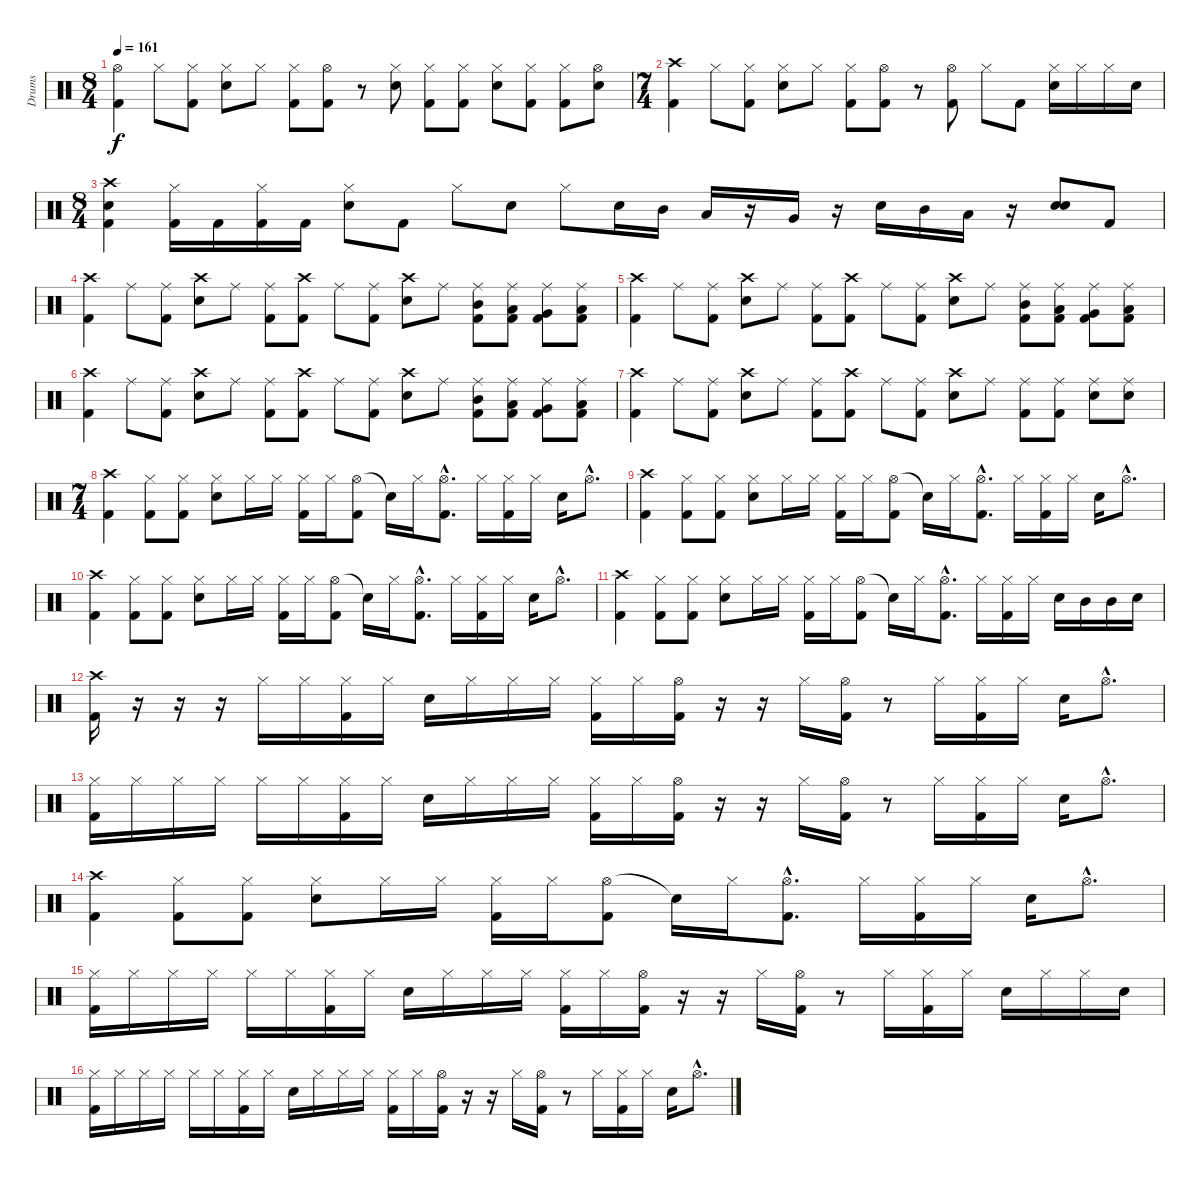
\track ("Drums" "Drums") {instrument percussion}
\staff {score}
\articulation defaults
\ts (8 4)
\tempo 161
\clef neutral
\ks c
("Hi-Hat (open)" "Kick (hit) 2").4{dy f} "Hi-Hat (closed)".8 ("Hi-Hat (closed)" "Kick (hit) 2").8 ("Hi-Hat (closed)" "Snare (hit) 2").8 "Hi-Hat (closed)".8 ("Hi-Hat (closed)" "Kick (hit) 2").8 ("Hi-Hat (open)" "Kick (hit) 2").8 r.8 ("Hi-Hat (closed)" "Snare (hit) 2").8 ("Hi-Hat (closed)" "Kick (hit) 2").8 ("Hi-Hat (closed)" "Kick (hit) 2").8 ("Hi-Hat (closed)" "Snare (hit) 2").8 ("Hi-Hat (closed)" "Kick (hit) 2").8 ("Hi-Hat (closed)" "Kick (hit) 2").8 ("Hi-Hat (open)" "Snare (hit) 2").8 |
\ts (7 4)
("Crash high (hit)" "Kick (hit) 2").4 "Hi-Hat (closed)".8 ("Hi-Hat (closed)" "Kick (hit) 2").8 ("Hi-Hat (closed)" "Snare (hit) 2").8 "Hi-Hat (closed)".8 ("Hi-Hat (closed)" "Kick (hit) 2").8 ("Hi-Hat (open)" "Kick (hit) 2").8 r.8 ("Hi-Hat (open)" "Kick (hit) 2").8 "Hi-Hat (closed)".8 "Kick (hit) 2".8 ("Hi-Hat (closed)" "Snare (hit) 2").16 "Hi-Hat (closed)".16 "Hi-Hat (closed)".16 "Snare (hit) 2".16 |
\ts (8 4)
("Crash high (hit)" "Snare (hit) 2" "Kick (hit) 2").4 ("Hi-Hat (closed)" "Kick (hit) 2").16 "Kick (hit) 2".16 ("Hi-Hat (closed)" "Kick (hit) 2").16 "Kick (hit) 2".16 ("Hi-Hat (closed)" "Snare (hit) 2").8 "Kick (hit) 2".8 "Hi-Hat (closed)".8 "Snare (hit) 2".8 "Hi-Hat (closed)".8 "Snare (hit) 2".16 "Mid Tom (hit)".16 "Low Tom (hit)".16 r.16 "Very Low Tom (hit)".16 r.16 "Snare (hit) 2".16 "Mid Tom (hit)".16 "Low Tom (hit)".16 r.16 ("Snare (hit) 2" "Snare (hit) 2").8 "Kick (hit) 2".8 |
("Crash high (hit)" "Kick (hit) 2").4 "Ride (middle)".8 ("Ride (middle)" "Kick (hit) 2").8 ("Crash high (hit)" "Snare (hit) 2").8 "Ride (middle)".8 ("Ride (middle)" "Kick (hit) 2").8 ("Crash high (hit)" "Kick (hit) 2").8 "Ride (middle)".8 ("Ride (middle)" "Kick (hit) 2").8 ("Crash high (hit)" "Snare (hit) 2").8 "Ride (middle)".8 ("Ride (middle)" "Mid Tom (hit)" "Kick (hit) 2").8 ("Ride (middle)" "Low Tom (hit)" "Kick (hit) 2").8 ("Ride (middle)" "Very Low Tom (hit)" "Kick (hit) 2").8 ("Ride (middle)" "Low Floor Tom (hit)" "Kick (hit) 2").8 |
("Crash high (hit)" "Kick (hit) 2").4 "Ride (middle)".8 ("Ride (middle)" "Kick (hit) 2").8 ("Crash high (hit)" "Snare (hit) 2").8 "Ride (middle)".8 ("Ride (middle)" "Kick (hit) 2").8 ("Crash high (hit)" "Kick (hit) 2").8 "Ride (middle)".8 ("Ride (middle)" "Kick (hit) 2").8 ("Crash high (hit)" "Snare (hit) 2").8 "Ride (middle)".8 ("Ride (middle)" "Mid Tom (hit)" "Kick (hit) 2").8 ("Ride (middle)" "Low Tom (hit)" "Kick (hit) 2").8 ("Ride (middle)" "Very Low Tom (hit)" "Kick (hit) 2").8 ("Ride (middle)" "Low Floor Tom (hit)" "Kick (hit) 2").8 |
("Crash high (hit)" "Kick (hit) 2").4 "Ride (middle)".8 ("Ride (middle)" "Kick (hit) 2").8 ("Crash high (hit)" "Snare (hit) 2").8 "Ride (middle)".8 ("Ride (middle)" "Kick (hit) 2").8 ("Crash high (hit)" "Kick (hit) 2").8 "Ride (middle)".8 ("Ride (middle)" "Kick (hit) 2").8 ("Crash high (hit)" "Snare (hit) 2").8 "Ride (middle)".8 ("Ride (middle)" "Mid Tom (hit)" "Kick (hit) 2").8 ("Ride (middle)" "Low Tom (hit)" "Kick (hit) 2").8 ("Ride (middle)" "Very Low Tom (hit)" "Kick (hit) 2").8 ("Ride (middle)" "Low Floor Tom (hit)" "Kick (hit) 2").8 |
("Crash high (hit)" "Kick (hit) 2").4 "Ride (middle)".8 ("Ride (middle)" "Kick (hit) 2").8 ("Crash high (hit)" "Snare (hit) 2").8 "Ride (middle)".8 ("Ride (middle)" "Kick (hit) 2").8 ("Crash high (hit)" "Kick (hit) 2").8 "Ride (middle)".8 ("Ride (middle)" "Kick (hit) 2").8 ("Crash high (hit)" "Snare (hit) 2").8 "Ride (middle)".8 ("Ride (middle)" "Kick (hit) 2").8 ("Ride (middle)" "Kick (hit) 2").8 ("Ride (middle)" "Snare (hit) 2").8 ("Ride (middle)" "Snare (hit) 2").8 |
\ts (7 4)
("Crash high (hit)" "Kick (hit) 2").4 ("Hi-Hat (closed)" "Kick (hit) 2").8 ("Hi-Hat (closed)" "Kick (hit) 2").8 ("Hi-Hat (closed)" "Snare (hit) 2").8 "Hi-Hat (closed)".16 "Hi-Hat (closed)".16 ("Hi-Hat (closed)" "Kick (hit) 2").16 "Hi-Hat (closed)".16 ("Hi-Hat (open)" "Kick (hit) 2").8 "Snare (hit)"{t}.16 "Hi-Hat (closed)".16 ("Hi-Hat (open)"{hac} "Kick (hit) 2"{hac}).8{d} "Hi-Hat (closed)".16 ("Hi-Hat (closed)" "Kick (hit) 2").16 "Hi-Hat (closed)".16 "Snare (hit) 2".16 "Hi-Hat (open)"{hac}.8{d} |
("Crash high (hit)" "Kick (hit) 2").4 ("Hi-Hat (closed)" "Kick (hit) 2").8 ("Hi-Hat (closed)" "Kick (hit) 2").8 ("Hi-Hat (closed)" "Snare (hit) 2").8 "Hi-Hat (closed)".16 "Hi-Hat (closed)".16 ("Hi-Hat (closed)" "Kick (hit) 2").16 "Hi-Hat (closed)".16 ("Hi-Hat (open)" "Kick (hit) 2").8 "Snare (hit)"{t}.16 "Hi-Hat (closed)".16 ("Hi-Hat (open)"{hac} "Kick (hit) 2"{hac}).8{d} "Hi-Hat (closed)".16 ("Hi-Hat (closed)" "Kick (hit) 2").16 "Hi-Hat (closed)".16 "Snare (hit) 2".16 "Hi-Hat (open)"{hac}.8{d} |
("Crash high (hit)" "Kick (hit) 2").4 ("Hi-Hat (closed)" "Kick (hit) 2").8 ("Hi-Hat (closed)" "Kick (hit) 2").8 ("Hi-Hat (closed)" "Snare (hit) 2").8 "Hi-Hat (closed)".16 "Hi-Hat (closed)".16 ("Hi-Hat (closed)" "Kick (hit) 2").16 "Hi-Hat (closed)".16 ("Hi-Hat (open)" "Kick (hit) 2").8 "Snare (hit)"{t}.16 "Hi-Hat (closed)".16 ("Hi-Hat (open)"{hac} "Kick (hit) 2"{hac}).8{d} "Hi-Hat (closed)".16 ("Hi-Hat (closed)" "Kick (hit) 2").16 "Hi-Hat (closed)".16 "Snare (hit) 2".16 "Hi-Hat (open)"{hac}.8{d} |
("Crash high (hit)" "Kick (hit) 2").4 ("Hi-Hat (closed)" "Kick (hit) 2").8 ("Hi-Hat (closed)" "Kick (hit) 2").8 ("Hi-Hat (closed)" "Snare (hit) 2").8 "Hi-Hat (closed)".16 "Hi-Hat (closed)".16 ("Hi-Hat (closed)" "Kick (hit) 2").16 "Hi-Hat (closed)".16 ("Hi-Hat (open)" "Kick (hit) 2").8 "Snare (hit)"{t}.16 "Hi-Hat (closed)".16 ("Hi-Hat (open)"{hac} "Kick (hit) 2"{hac}).8{d} "Hi-Hat (closed)".16 ("Hi-Hat (closed)" "Kick (hit) 2").16 "Hi-Hat (closed)".16 "Snare (hit) 2".16 "Mid Tom (hit)".16 "Mid Tom (hit)".16 "Snare (hit) 2".16 |
("Crash high (hit)" "Kick (hit) 2").16 r.16 r.16 r.16 "Hi-Hat (closed)".16 "Hi-Hat (closed)".16 ("Hi-Hat (closed)" "Kick (hit) 2").16 "Hi-Hat (closed)".16 "Snare (hit) 2".16 "Hi-Hat (closed)".16 "Hi-Hat (closed)".16 "Hi-Hat (closed)".16 ("Hi-Hat (closed)" "Kick (hit) 2").16 "Hi-Hat (closed)".16 ("Hi-Hat (open)" "Kick (hit) 2").16 r.16 r.16 "Hi-Hat (closed)".16 ("Hi-Hat (open)" "Kick (hit) 2").16 r.8 "Hi-Hat (closed)".16 ("Hi-Hat (closed)" "Kick (hit) 2").16 "Hi-Hat (closed)".16 "Snare (hit) 2".16 "Hi-Hat (open)"{hac}.8{d} |
("Hi-Hat (closed)" "Kick (hit) 2").16 "Hi-Hat (closed)".16 "Hi-Hat (closed)".16 "Hi-Hat (closed)".16 "Hi-Hat (closed)".16 "Hi-Hat (closed)".16 ("Hi-Hat (closed)" "Kick (hit) 2").16 "Hi-Hat (closed)".16 "Snare (hit) 2".16 "Hi-Hat (closed)".16 "Hi-Hat (closed)".16 "Hi-Hat (closed)".16 ("Hi-Hat (closed)" "Kick (hit) 2").16 "Hi-Hat (closed)".16 ("Hi-Hat (open)" "Kick (hit) 2").16 r.16 r.16 "Hi-Hat (closed)".16 ("Hi-Hat (open)" "Kick (hit) 2").16 r.8 "Hi-Hat (closed)".16 ("Hi-Hat (closed)" "Kick (hit) 2").16 "Hi-Hat (closed)".16 "Snare (hit) 2".16 "Hi-Hat (open)"{hac}.8{d} |
("Crash high (hit)" "Kick (hit) 2").4 ("Hi-Hat (closed)" "Kick (hit) 2").8 ("Hi-Hat (closed)" "Kick (hit) 2").8 ("Hi-Hat (closed)" "Snare (hit) 2").8 "Hi-Hat (closed)".16 "Hi-Hat (closed)".16 ("Hi-Hat (closed)" "Kick (hit) 2").16 "Hi-Hat (closed)".16 ("Hi-Hat (open)" "Kick (hit) 2").8 "Snare (hit)"{t}.16 "Hi-Hat (closed)".16 ("Hi-Hat (open)"{hac} "Kick (hit) 2"{hac}).8{d} "Hi-Hat (closed)".16 ("Hi-Hat (closed)" "Kick (hit) 2").16 "Hi-Hat (closed)".16 "Snare (hit) 2".16 "Hi-Hat (open)"{hac}.8{d} |
("Hi-Hat (closed)" "Kick (hit) 2").16 "Hi-Hat (closed)".16 "Hi-Hat (closed)".16 "Hi-Hat (closed)".16 "Hi-Hat (closed)".16 "Hi-Hat (closed)".16 ("Hi-Hat (closed)" "Kick (hit) 2").16 "Hi-Hat (closed)".16 "Snare (hit) 2".16 "Hi-Hat (closed)".16 "Hi-Hat (closed)".16 "Hi-Hat (closed)".16 ("Hi-Hat (closed)" "Kick (hit) 2").16 "Hi-Hat (closed)".16 ("Hi-Hat (open)" "Kick (hit) 2").16 r.16 r.16 "Hi-Hat (closed)".16 ("Hi-Hat (open)" "Kick (hit) 2").16 r.8 "Hi-Hat (closed)".16 ("Hi-Hat (closed)" "Kick (hit) 2").16 "Hi-Hat (closed)".16 "Snare (hit) 2".16 "Hi-Hat (closed)".16 "Hi-Hat (closed)".16 "Snare (hit) 2".16 |
("Hi-Hat (closed)" "Kick (hit) 2").16 "Hi-Hat (closed)".16 "Hi-Hat (closed)".16 "Hi-Hat (closed)".16 "Hi-Hat (closed)".16 "Hi-Hat (closed)".16 ("Hi-Hat (closed)" "Kick (hit) 2").16 "Hi-Hat (closed)".16 "Snare (hit) 2".16 "Hi-Hat (closed)".16 "Hi-Hat (closed)".16 "Hi-Hat (closed)".16 ("Hi-Hat (closed)" "Kick (hit) 2").16 "Hi-Hat (closed)".16 ("Hi-Hat (open)" "Kick (hit) 2").16 r.16 r.16 "Hi-Hat (closed)".16 ("Hi-Hat (open)" "Kick (hit) 2").16 r.8 "Hi-Hat (closed)".16 ("Hi-Hat (closed)" "Kick (hit) 2").16 "Hi-Hat (closed)".16 "Snare (hit) 2".16 "Hi-Hat (open)"{hac}.8{d}
